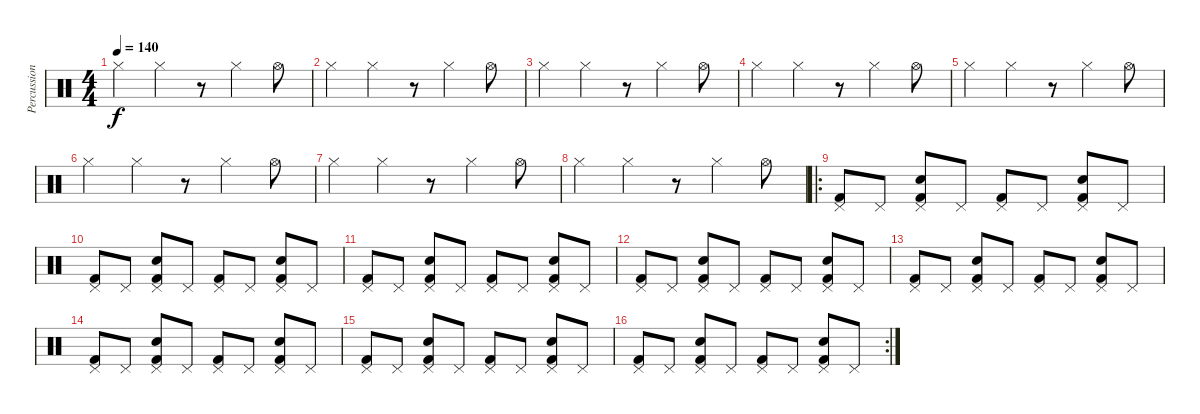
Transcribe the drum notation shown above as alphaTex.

\track ("Percussion" "Percussion") {instrument percussion}
\staff {score}
\articulation defaults
\ts (4 4)
\tempo 140
\clef neutral
\ks c "Hi-Hat (closed)".4{dy f} "Hi-Hat (closed)".4
r.8 "Hi-Hat (closed)".4 "Hi-Hat (open)".8 |
"Hi-Hat (closed)".4 "Hi-Hat (closed)".4 r.8 "Hi-Hat (closed)".4 "Hi-Hat (open)".8 |
"Hi-Hat (closed)".4 "Hi-Hat (closed)".4 r.8 "Hi-Hat (closed)".4 "Hi-Hat (open)".8 |
"Hi-Hat (closed)".4 "Hi-Hat (closed)".4 r.8 "Hi-Hat (closed)".4 "Hi-Hat (open)".8 |
"Hi-Hat (closed)".4 "Hi-Hat (closed)".4 r.8 "Hi-Hat (closed)".4 "Hi-Hat (open)".8 |
"Hi-Hat (closed)".4 "Hi-Hat (closed)".4 r.8 "Hi-Hat (closed)".4 "Hi-Hat (open)".8 |
"Hi-Hat (closed)".4 "Hi-Hat (closed)".4 r.8 "Hi-Hat (closed)".4 "Hi-Hat (open)".8 |
"Hi-Hat (closed)".4 "Hi-Hat (closed)".4 r.8 "Hi-Hat (closed)".4 "Hi-Hat (open)".8 |
\ro
("Kick (hit) 2" "Pedal Hi-Hat (hit)").8 "Pedal Hi-Hat (hit)".8 ("Electric Snare (hit)" "Kick (hit) 2" "Pedal Hi-Hat (hit)").8 "Pedal Hi-Hat (hit)".8 ("Kick (hit) 2" "Pedal Hi-Hat (hit)").8 "Pedal Hi-Hat (hit)".8 ("Electric Snare (hit)" "Kick (hit) 2" "Pedal Hi-Hat (hit)").8 "Pedal Hi-Hat (hit)".8 |
("Kick (hit) 2" "Pedal Hi-Hat (hit)").8 "Pedal Hi-Hat (hit)".8 ("Electric Snare (hit)" "Kick (hit) 2" "Pedal Hi-Hat (hit)").8 "Pedal Hi-Hat (hit)".8 ("Kick (hit) 2" "Pedal Hi-Hat (hit)").8 "Pedal Hi-Hat (hit)".8 ("Electric Snare (hit)" "Kick (hit) 2" "Pedal Hi-Hat (hit)").8 "Pedal Hi-Hat (hit)".8 |
("Kick (hit) 2" "Pedal Hi-Hat (hit)").8 "Pedal Hi-Hat (hit)".8 ("Electric Snare (hit)" "Kick (hit) 2" "Pedal Hi-Hat (hit)").8 "Pedal Hi-Hat (hit)".8 ("Kick (hit) 2" "Pedal Hi-Hat (hit)").8 "Pedal Hi-Hat (hit)".8 ("Electric Snare (hit)" "Kick (hit) 2" "Pedal Hi-Hat (hit)").8 "Pedal Hi-Hat (hit)".8 |
("Kick (hit) 2" "Pedal Hi-Hat (hit)").8 "Pedal Hi-Hat (hit)".8 ("Electric Snare (hit)" "Kick (hit) 2" "Pedal Hi-Hat (hit)").8 "Pedal Hi-Hat (hit)".8 ("Kick (hit) 2" "Pedal Hi-Hat (hit)").8 "Pedal Hi-Hat (hit)".8 ("Electric Snare (hit)" "Kick (hit) 2" "Pedal Hi-Hat (hit)").8 "Pedal Hi-Hat (hit)".8 |
("Kick (hit) 2" "Pedal Hi-Hat (hit)").8 "Pedal Hi-Hat (hit)".8 ("Electric Snare (hit)" "Kick (hit) 2" "Pedal Hi-Hat (hit)").8 "Pedal Hi-Hat (hit)".8 ("Kick (hit) 2" "Pedal Hi-Hat (hit)").8 "Pedal Hi-Hat (hit)".8 ("Electric Snare (hit)" "Kick (hit) 2" "Pedal Hi-Hat (hit)").8 "Pedal Hi-Hat (hit)".8 |
("Kick (hit) 2" "Pedal Hi-Hat (hit)").8 "Pedal Hi-Hat (hit)".8 ("Electric Snare (hit)" "Kick (hit) 2" "Pedal Hi-Hat (hit)").8 "Pedal Hi-Hat (hit)".8 ("Kick (hit) 2" "Pedal Hi-Hat (hit)").8 "Pedal Hi-Hat (hit)".8 ("Electric Snare (hit)" "Kick (hit) 2" "Pedal Hi-Hat (hit)").8 "Pedal Hi-Hat (hit)".8 |
("Kick (hit) 2" "Pedal Hi-Hat (hit)").8 "Pedal Hi-Hat (hit)".8 ("Electric Snare (hit)" "Kick (hit) 2" "Pedal Hi-Hat (hit)").8 "Pedal Hi-Hat (hit)".8 ("Kick (hit) 2" "Pedal Hi-Hat (hit)").8 "Pedal Hi-Hat (hit)".8 ("Electric Snare (hit)" "Kick (hit) 2" "Pedal Hi-Hat (hit)").8 "Pedal Hi-Hat (hit)".8 |
\rc 2
("Kick (hit) 2" "Pedal Hi-Hat (hit)").8 "Pedal Hi-Hat (hit)".8 ("Electric Snare (hit)" "Kick (hit) 2" "Pedal Hi-Hat (hit)").8 "Pedal Hi-Hat (hit)".8 ("Kick (hit) 2" "Pedal Hi-Hat (hit)").8 "Pedal Hi-Hat (hit)".8 ("Electric Snare (hit)" "Kick (hit) 2" "Pedal Hi-Hat (hit)").8 "Pedal Hi-Hat (hit)".8
